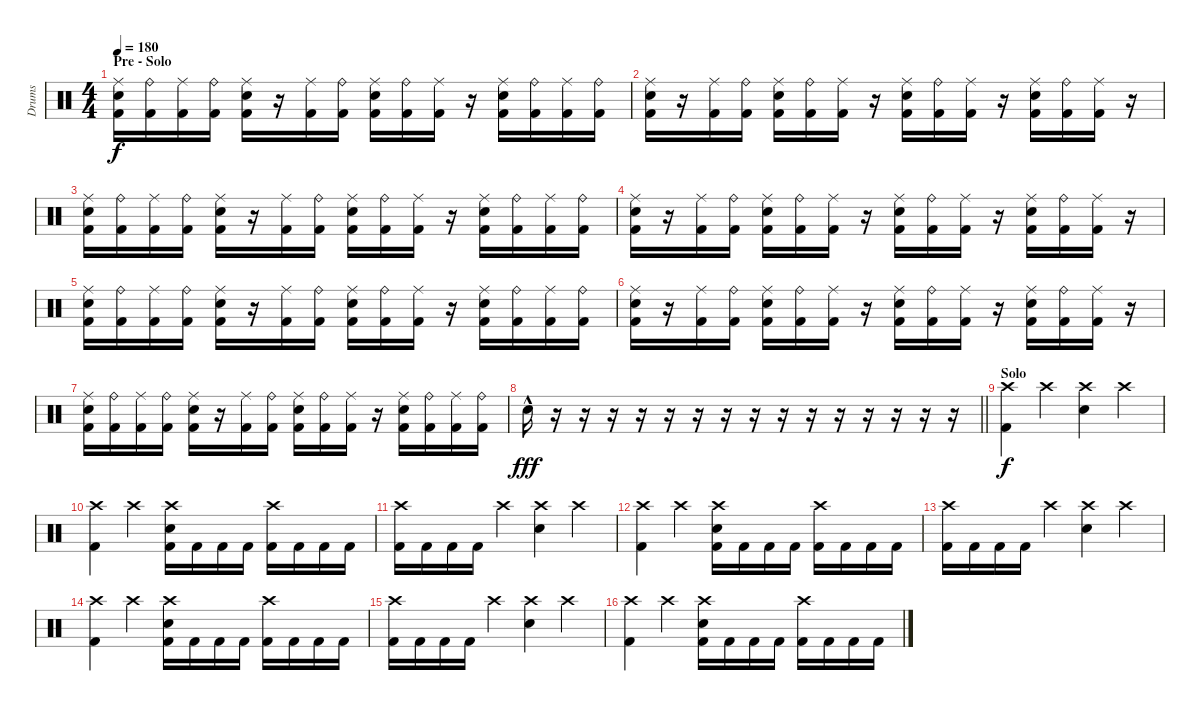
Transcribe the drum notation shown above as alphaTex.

\track ("Drums" "Drums") {instrument percussion}
\staff {score}
\articulation defaults
\ts (4 4)
\section ("" "Pre - Solo")
\tempo 180
\clef neutral
\ks c
("Ride (middle)" "Electric Snare (hit)" "Kick (hit) 2").16{dy f} ("Ride (bell)" "Kick (hit) 2").16 ("Ride (middle)" "Kick (hit) 2").16 ("Ride (bell)" "Kick (hit) 2").16 ("Ride (middle)" "Electric Snare (hit)" "Kick (hit) 2").16 r.16 ("Ride (middle)" "Kick (hit) 2").16 ("Ride (bell)" "Kick (hit) 2").16 ("Ride (middle)" "Electric Snare (hit)" "Kick (hit) 2").16 ("Ride (bell)" "Kick (hit) 2").16 ("Ride (middle)" "Kick (hit) 2").16 r.16 ("Ride (middle)" "Electric Snare (hit)" "Kick (hit) 2").16 ("Ride (bell)" "Kick (hit) 2").16 ("Ride (middle)" "Kick (hit) 2").16 ("Ride (bell)" "Kick (hit) 2").16 |
("Ride (middle)" "Electric Snare (hit)" "Kick (hit) 2").16 r.16 ("Ride (middle)" "Kick (hit) 2").16 ("Ride (bell)" "Kick (hit) 2").16 ("Ride (middle)" "Electric Snare (hit)" "Kick (hit) 2").16 ("Ride (bell)" "Kick (hit) 2").16 ("Ride (middle)" "Kick (hit) 2").16 r.16 ("Ride (middle)" "Electric Snare (hit)" "Kick (hit) 2").16 ("Ride (bell)" "Kick (hit) 2").16 ("Ride (middle)" "Kick (hit) 2").16 r.16 ("Ride (middle)" "Electric Snare (hit)" "Kick (hit) 2").16 ("Ride (bell)" "Kick (hit) 2").16 ("Ride (middle)" "Kick (hit) 2").16 r.16 |
("Ride (middle)" "Electric Snare (hit)" "Kick (hit) 2").16 ("Ride (bell)" "Kick (hit) 2").16 ("Ride (middle)" "Kick (hit) 2").16 ("Ride (bell)" "Kick (hit) 2").16 ("Ride (middle)" "Electric Snare (hit)" "Kick (hit) 2").16 r.16 ("Ride (middle)" "Kick (hit) 2").16 ("Ride (bell)" "Kick (hit) 2").16 ("Ride (middle)" "Electric Snare (hit)" "Kick (hit) 2").16 ("Ride (bell)" "Kick (hit) 2").16 ("Ride (middle)" "Kick (hit) 2").16 r.16 ("Ride (middle)" "Electric Snare (hit)" "Kick (hit) 2").16 ("Ride (bell)" "Kick (hit) 2").16 ("Ride (middle)" "Kick (hit) 2").16 ("Ride (bell)" "Kick (hit) 2").16 |
("Ride (middle)" "Electric Snare (hit)" "Kick (hit) 2").16 r.16 ("Ride (middle)" "Kick (hit) 2").16 ("Ride (bell)" "Kick (hit) 2").16 ("Ride (middle)" "Electric Snare (hit)" "Kick (hit) 2").16 ("Ride (bell)" "Kick (hit) 2").16 ("Ride (middle)" "Kick (hit) 2").16 r.16 ("Ride (middle)" "Electric Snare (hit)" "Kick (hit) 2").16 ("Ride (bell)" "Kick (hit) 2").16 ("Ride (middle)" "Kick (hit) 2").16 r.16 ("Ride (middle)" "Electric Snare (hit)" "Kick (hit) 2").16 ("Ride (bell)" "Kick (hit) 2").16 ("Ride (middle)" "Kick (hit) 2").16 r.16 |
("Ride (middle)" "Electric Snare (hit)" "Kick (hit) 2").16 ("Ride (bell)" "Kick (hit) 2").16 ("Ride (middle)" "Kick (hit) 2").16 ("Ride (bell)" "Kick (hit) 2").16 ("Ride (middle)" "Electric Snare (hit)" "Kick (hit) 2").16 r.16 ("Ride (middle)" "Kick (hit) 2").16 ("Ride (bell)" "Kick (hit) 2").16 ("Ride (middle)" "Electric Snare (hit)" "Kick (hit) 2").16 ("Ride (bell)" "Kick (hit) 2").16 ("Ride (middle)" "Kick (hit) 2").16 r.16 ("Ride (middle)" "Electric Snare (hit)" "Kick (hit) 2").16 ("Ride (bell)" "Kick (hit) 2").16 ("Ride (middle)" "Kick (hit) 2").16 ("Ride (bell)" "Kick (hit) 2").16 |
("Ride (middle)" "Electric Snare (hit)" "Kick (hit) 2").16 r.16 ("Ride (middle)" "Kick (hit) 2").16 ("Ride (bell)" "Kick (hit) 2").16 ("Ride (middle)" "Electric Snare (hit)" "Kick (hit) 2").16 ("Ride (bell)" "Kick (hit) 2").16 ("Ride (middle)" "Kick (hit) 2").16 r.16 ("Ride (middle)" "Electric Snare (hit)" "Kick (hit) 2").16 ("Ride (bell)" "Kick (hit) 2").16 ("Ride (middle)" "Kick (hit) 2").16 r.16 ("Ride (middle)" "Electric Snare (hit)" "Kick (hit) 2").16 ("Ride (bell)" "Kick (hit) 2").16 ("Ride (middle)" "Kick (hit) 2").16 r.16 |
("Ride (middle)" "Electric Snare (hit)" "Kick (hit) 2").16 ("Ride (bell)" "Kick (hit) 2").16 ("Ride (middle)" "Kick (hit) 2").16 ("Ride (bell)" "Kick (hit) 2").16 ("Ride (middle)" "Electric Snare (hit)" "Kick (hit) 2").16 r.16 ("Ride (middle)" "Kick (hit) 2").16 ("Ride (bell)" "Kick (hit) 2").16 ("Ride (middle)" "Electric Snare (hit)" "Kick (hit) 2").16 ("Ride (bell)" "Kick (hit) 2").16 ("Ride (middle)" "Kick (hit) 2").16 r.16 ("Ride (middle)" "Electric Snare (hit)" "Kick (hit) 2").16 ("Ride (bell)" "Kick (hit) 2").16 ("Ride (middle)" "Kick (hit) 2").16 ("Ride (bell)" "Kick (hit) 2").16 |
\barLineRight lightlight "Electric Snare (hit)"{hac}.16{dy fff}
r.16 r.16 r.16 r.16 r.16 r.16 r.16 r.16 r.16 r.16 r.16 r.16 r.16 r.16 r.16 |
\section ("" "Solo")
("Crash high (hit)" "Kick (hit) 2").4{dy f} "Crash high (hit)".4 ("Crash high (hit)" "Electric Snare (hit)").4 "Crash high (hit)".4 |
("Crash high (hit)" "Kick (hit) 2").4 "Crash high (hit)".4 ("Crash high (hit)" "Electric Snare (hit)" "Kick (hit) 2").16 "Kick (hit) 2".16 "Kick (hit) 2".16 "Kick (hit) 2".16 ("Crash high (hit)" "Kick (hit) 2").16 "Kick (hit) 2".16 "Kick (hit) 2".16 "Kick (hit) 2".16 |
("Crash high (hit)" "Kick (hit) 2").16 "Kick (hit) 2".16 "Kick (hit) 2".16 "Kick (hit) 2".16 "Crash high (hit)".4 ("Crash high (hit)" "Electric Snare (hit)").4 "Crash high (hit)".4 |
("Crash high (hit)" "Kick (hit) 2").4 "Crash high (hit)".4 ("Crash high (hit)" "Electric Snare (hit)" "Kick (hit) 2").16 "Kick (hit) 2".16 "Kick (hit) 2".16 "Kick (hit) 2".16 ("Crash high (hit)" "Kick (hit) 2").16 "Kick (hit) 2".16 "Kick (hit) 2".16 "Kick (hit) 2".16 |
("Crash high (hit)" "Kick (hit) 2").16 "Kick (hit) 2".16 "Kick (hit) 2".16 "Kick (hit) 2".16 "Crash high (hit)".4 ("Crash high (hit)" "Electric Snare (hit)").4 "Crash high (hit)".4 |
("Crash high (hit)" "Kick (hit) 2").4 "Crash high (hit)".4 ("Crash high (hit)" "Electric Snare (hit)" "Kick (hit) 2").16 "Kick (hit) 2".16 "Kick (hit) 2".16 "Kick (hit) 2".16 ("Crash high (hit)" "Kick (hit) 2").16 "Kick (hit) 2".16 "Kick (hit) 2".16 "Kick (hit) 2".16 |
("Crash high (hit)" "Kick (hit) 2").16 "Kick (hit) 2".16 "Kick (hit) 2".16 "Kick (hit) 2".16 "Crash high (hit)".4 ("Crash high (hit)" "Electric Snare (hit)").4 "Crash high (hit)".4 |
("Crash high (hit)" "Kick (hit) 2").4 "Crash high (hit)".4 ("Crash high (hit)" "Electric Snare (hit)" "Kick (hit) 2").16 "Kick (hit) 2".16 "Kick (hit) 2".16 "Kick (hit) 2".16 ("Crash high (hit)" "Kick (hit) 2").16 "Kick (hit) 2".16 "Kick (hit) 2".16 "Kick (hit) 2".16
